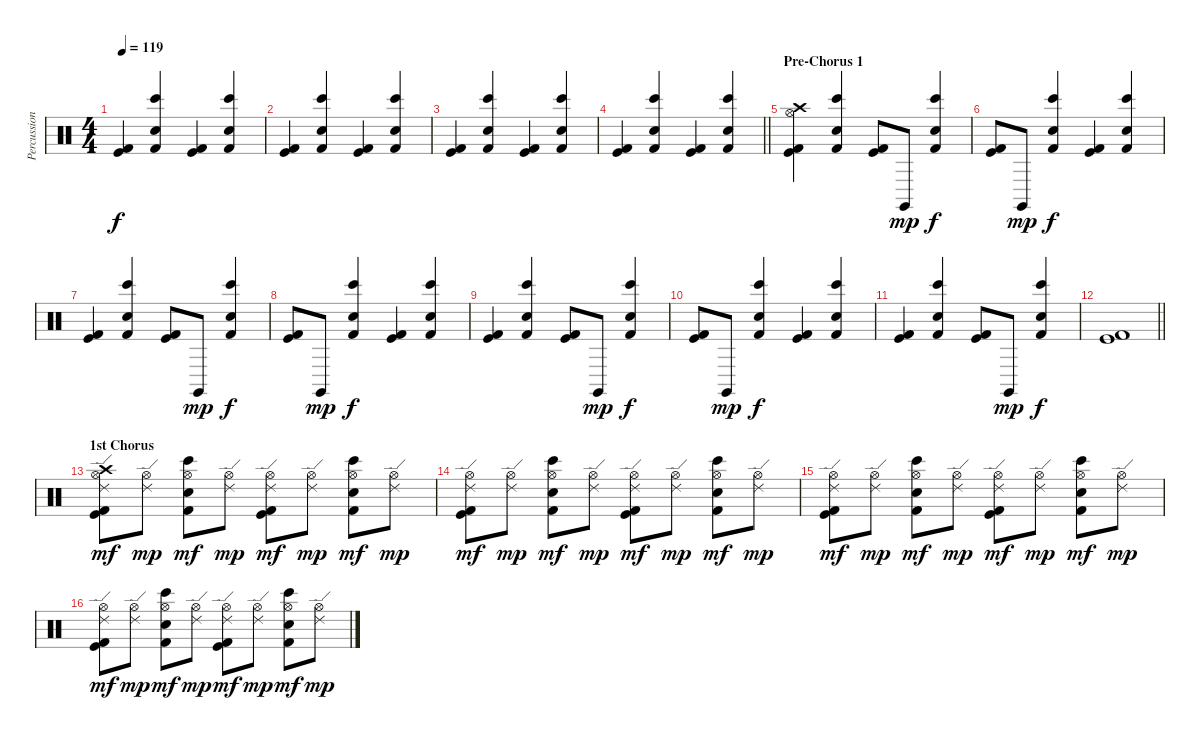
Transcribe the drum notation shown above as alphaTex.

\track ("Percussion" "Percussion") {instrument percussion}
\staff {score}
\articulation defaults
\ts (4 4)
\tempo 119
\clef neutral
\ks c
("Kick (hit)" "Kick (hit) 2").4{dy f} ("Bongo High (hit)" "Hand Clap (hit)" "Kick (hit) 2").4 ("Kick (hit)" "Kick (hit) 2").4 ("Bongo High (hit)" "Hand Clap (hit)" "Kick (hit) 2").4 |
("Kick (hit)" "Kick (hit) 2").4 ("Bongo High (hit)" "Hand Clap (hit)" "Kick (hit) 2").4 ("Kick (hit)" "Kick (hit) 2").4 ("Bongo High (hit)" "Hand Clap (hit)" "Kick (hit) 2").4 |
("Kick (hit)" "Kick (hit) 2").4 ("Bongo High (hit)" "Hand Clap (hit)" "Kick (hit) 2").4 ("Kick (hit)" "Kick (hit) 2").4 ("Bongo High (hit)" "Hand Clap (hit)" "Kick (hit) 2").4 |
\barLineRight lightlight
("Kick (hit)" "Kick (hit) 2").4 ("Bongo High (hit)" "Hand Clap (hit)" "Kick (hit) 2").4 ("Kick (hit)" "Kick (hit) 2").4 ("Bongo High (hit)" "Hand Clap (hit)" "Kick (hit) 2").4 |
\section ("" "Pre-Chorus 1")
("Crash high (hit)" "Hi-Hat (open)" "Kick (hit)" "Kick (hit) 2").4 ("Bongo High (hit)" "Hand Clap (hit)" "Kick (hit) 2").4 ("Kick (hit)" "Kick (hit) 2").8 "Claves (hit)".8{dy mp} ("Bongo High (hit)" "Hand Clap (hit)" "Kick (hit) 2").4{dy f} |
("Kick (hit)" "Kick (hit) 2").8 "Claves (hit)".8{dy mp} ("Bongo High (hit)" "Hand Clap (hit)" "Kick (hit) 2").4{dy f} ("Kick (hit)" "Kick (hit) 2").4 ("Bongo High (hit)" "Hand Clap (hit)" "Kick (hit) 2").4 |
("Kick (hit)" "Kick (hit) 2").4 ("Bongo High (hit)" "Hand Clap (hit)" "Kick (hit) 2").4 ("Kick (hit)" "Kick (hit) 2").8 "Claves (hit)".8{dy mp} ("Bongo High (hit)" "Hand Clap (hit)" "Kick (hit) 2").4{dy f} |
("Kick (hit)" "Kick (hit) 2").8 "Claves (hit)".8{dy mp} ("Bongo High (hit)" "Hand Clap (hit)" "Kick (hit) 2").4{dy f} ("Kick (hit)" "Kick (hit) 2").4 ("Bongo High (hit)" "Hand Clap (hit)" "Kick (hit) 2").4 |
("Kick (hit)" "Kick (hit) 2").4 ("Bongo High (hit)" "Hand Clap (hit)" "Kick (hit) 2").4 ("Kick (hit)" "Kick (hit) 2").8 "Claves (hit)".8{dy mp} ("Bongo High (hit)" "Hand Clap (hit)" "Kick (hit) 2").4{dy f} |
("Kick (hit)" "Kick (hit) 2").8 "Claves (hit)".8{dy mp} ("Bongo High (hit)" "Hand Clap (hit)" "Kick (hit) 2").4{dy f} ("Kick (hit)" "Kick (hit) 2").4 ("Bongo High (hit)" "Hand Clap (hit)" "Kick (hit) 2").4 |
("Kick (hit)" "Kick (hit) 2").4 ("Bongo High (hit)" "Hand Clap (hit)" "Kick (hit) 2").4 ("Kick (hit)" "Kick (hit) 2").8 "Claves (hit)".8{dy mp} ("Bongo High (hit)" "Hand Clap (hit)" "Kick (hit) 2").4{dy f} |
\barLineRight lightlight
("Kick (hit)" "Kick (hit) 2").1 |
\section ("" "1st Chorus")
("Crash high (hit)" "Ride (edge) 2" "Hi-Hat (open)" "Kick (hit)" "Kick (hit) 2").8{dy mf} ("Ride (edge) 2" "Hi-Hat (open)").8{dy mp} ("Bongo High (hit)" "Hi-Hat (open)" "Hand Clap (hit)" "Kick (hit) 2").8{dy mf} ("Ride (edge) 2" "Hi-Hat (open)").8{dy mp} ("Ride (edge) 2" "Hi-Hat (open)" "Kick (hit)" "Kick (hit) 2").8{dy mf} ("Ride (edge) 2" "Hi-Hat (open)").8{dy mp} ("Bongo High (hit)" "Hi-Hat (open)" "Hand Clap (hit)" "Kick (hit) 2").8{dy mf} ("Ride (edge) 2" "Hi-Hat (open)").8{dy mp} |
("Ride (edge) 2" "Hi-Hat (open)" "Kick (hit)" "Kick (hit) 2").8{dy mf} ("Ride (edge) 2" "Hi-Hat (open)").8{dy mp} ("Bongo High (hit)" "Hi-Hat (open)" "Hand Clap (hit)" "Kick (hit) 2").8{dy mf} ("Ride (edge) 2" "Hi-Hat (open)").8{dy mp} ("Ride (edge) 2" "Hi-Hat (open)" "Kick (hit)" "Kick (hit) 2").8{dy mf} ("Ride (edge) 2" "Hi-Hat (open)").8{dy mp} ("Bongo High (hit)" "Hi-Hat (open)" "Hand Clap (hit)" "Kick (hit) 2").8{dy mf} ("Ride (edge) 2" "Hi-Hat (open)").8{dy mp} |
("Ride (edge) 2" "Hi-Hat (open)" "Kick (hit)" "Kick (hit) 2").8{dy mf} ("Ride (edge) 2" "Hi-Hat (open)").8{dy mp} ("Bongo High (hit)" "Hi-Hat (open)" "Hand Clap (hit)" "Kick (hit) 2").8{dy mf} ("Ride (edge) 2" "Hi-Hat (open)").8{dy mp} ("Ride (edge) 2" "Hi-Hat (open)" "Kick (hit)" "Kick (hit) 2").8{dy mf} ("Ride (edge) 2" "Hi-Hat (open)").8{dy mp} ("Bongo High (hit)" "Hi-Hat (open)" "Hand Clap (hit)" "Kick (hit) 2").8{dy mf} ("Ride (edge) 2" "Hi-Hat (open)").8{dy mp} |
("Ride (edge) 2" "Hi-Hat (open)" "Kick (hit)" "Kick (hit) 2").8{dy mf} ("Ride (edge) 2" "Hi-Hat (open)").8{dy mp} ("Bongo High (hit)" "Hi-Hat (open)" "Hand Clap (hit)" "Kick (hit) 2").8{dy mf} ("Ride (edge) 2" "Hi-Hat (open)").8{dy mp} ("Ride (edge) 2" "Hi-Hat (open)" "Kick (hit)" "Kick (hit) 2").8{dy mf} ("Ride (edge) 2" "Hi-Hat (open)").8{dy mp} ("Bongo High (hit)" "Hi-Hat (open)" "Hand Clap (hit)" "Kick (hit) 2").8{dy mf} ("Ride (edge) 2" "Hi-Hat (open)").8{dy mp}
